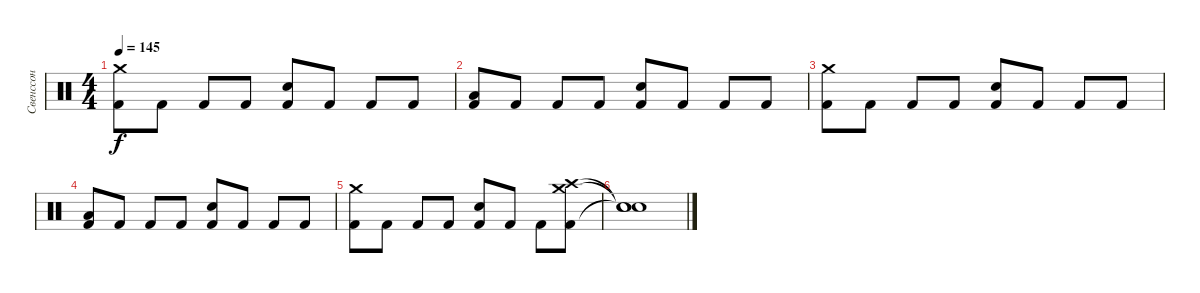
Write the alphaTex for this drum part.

\track ("Свенссон" "Свенссон") {instrument percussion}
\staff {score}
\articulation defaults
\ts (4 4)
\tempo 145
\clef neutral
\ks c
("Crash medium (hit)" "Kick (hit) 2").8{dy f} "Kick (hit) 2".8 "Kick (hit) 2".8 "Kick (hit) 2".8 ("Snare (hit) 2" "Kick (hit) 2").8 "Kick (hit) 2".8 "Kick (hit) 2".8 "Kick (hit) 2".8 |
("Low Floor Tom (hit)" "Kick (hit) 2").8 "Kick (hit) 2".8 "Kick (hit) 2".8 "Kick (hit) 2".8 ("Snare (hit) 2" "Kick (hit) 2").8 "Kick (hit) 2".8 "Kick (hit) 2".8 "Kick (hit) 2".8 |
("Crash medium (hit)" "Kick (hit) 2").8 "Kick (hit) 2".8 "Kick (hit) 2".8 "Kick (hit) 2".8 ("Snare (hit) 2" "Kick (hit) 2").8 "Kick (hit) 2".8 "Kick (hit) 2".8 "Kick (hit) 2".8 |
("Low Floor Tom (hit)" "Kick (hit) 2").8 "Kick (hit) 2".8 "Kick (hit) 2".8 "Kick (hit) 2".8 ("Snare (hit) 2" "Kick (hit) 2").8 "Kick (hit) 2".8 "Kick (hit) 2".8 "Kick (hit) 2".8 |
("Crash medium (hit)" "Kick (hit) 2").8 "Kick (hit) 2".8 "Kick (hit) 2".8 "Kick (hit) 2".8 ("Snare (hit) 2" "Kick (hit) 2").8 "Kick (hit) 2".8 "Kick (hit) 2".8 ("Crash high (hit)" "Crash medium (hit)" "Kick (hit) 2").8 |
("Snare (hit)"{t} "Snare (hit)"{t} "Snare (hit)"{t}).1
